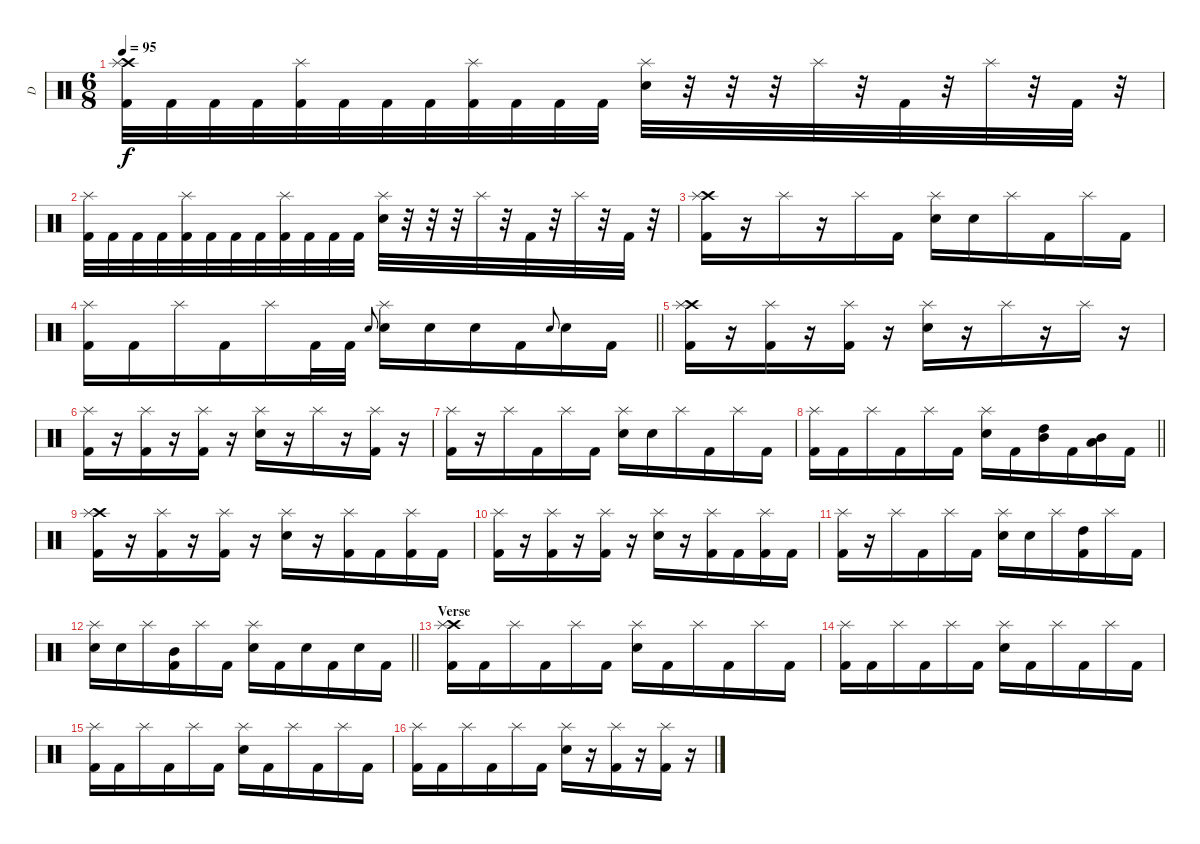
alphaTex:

\track ("D" "D") {instrument percussion}
\staff {score}
\articulation defaults
\ts (6 8)
\tempo 95
\clef neutral
\ks c
("Crash high (hit)" "Kick (hit) 2" "Splash (hit)").32{dy f} "Kick (hit) 2".32 "Kick (hit) 2".32 "Kick (hit) 2".32 ("Kick (hit) 2" "Splash (hit)").32 "Kick (hit) 2".32 "Kick (hit) 2".32 "Kick (hit) 2".32 ("Kick (hit) 2" "Splash (hit)").32 "Kick (hit) 2".32 "Kick (hit) 2".32 "Kick (hit) 2".32 ("Electric Snare (hit)" "Splash (hit)").32 r.32 r.32 r.32 "Splash (hit)".32 r.32 "Kick (hit) 2".32 r.32 "Splash (hit)".32 r.32 "Kick (hit) 2".32 r.32 |
("Kick (hit) 2" "Splash (hit)").32 "Kick (hit) 2".32 "Kick (hit) 2".32 "Kick (hit) 2".32 ("Kick (hit) 2" "Splash (hit)").32 "Kick (hit) 2".32 "Kick (hit) 2".32 "Kick (hit) 2".32 ("Kick (hit) 2" "Splash (hit)").32 "Kick (hit) 2".32 "Kick (hit) 2".32 "Kick (hit) 2".32 ("Electric Snare (hit)" "Splash (hit)").32 r.32 r.32 r.32 "Splash (hit)".32 r.32 "Kick (hit) 2".32 r.32 "Splash (hit)".32 r.32 "Kick (hit) 2".32 r.32 |
("Crash high (hit)" "Kick (hit) 2" "Splash (hit)").16 r.16 "Splash (hit)".16 r.16 "Splash (hit)".16 "Kick (hit) 2".16 ("Electric Snare (hit)" "Splash (hit)").16 "Electric Snare (hit)".16 "Splash (hit)".16 "Kick (hit) 2".16 "Splash (hit)".16 "Kick (hit) 2".16 |
\barLineRight lightlight
("Kick (hit) 2" "Splash (hit)").16 "Kick (hit) 2".16 "Splash (hit)".16 "Kick (hit) 2".16 "Splash (hit)".16 "Kick (hit) 2".32 "Kick (hit) 2".32 "Electric Snare (hit)".8{gr onbeat} ("Electric Snare (hit)" "Splash (hit)").16 "Electric Snare (hit)".16 "Electric Snare (hit)".16 "Kick (hit) 2".16 "Electric Snare (hit)".8{gr onbeat} "Electric Snare (hit)".16 "Kick (hit) 2".16 |
("Crash high (hit)" "Kick (hit) 2" "Splash (hit)").16 r.16 ("Kick (hit) 2" "Splash (hit)").16 r.16 ("Kick (hit) 2" "Splash (hit)").16 r.16 ("Electric Snare (hit)" "Splash (hit)").16 r.16 "Splash (hit)".16 r.16 "Splash (hit)".16 r.16 |
("Kick (hit) 2" "Splash (hit)").16 r.16 ("Kick (hit) 2" "Splash (hit)").16 r.16 ("Kick (hit) 2" "Splash (hit)").16 r.16 ("Electric Snare (hit)" "Splash (hit)").16 r.16 "Splash (hit)".16 r.16 ("Kick (hit) 2" "Splash (hit)").16 r.16 |
("Kick (hit) 2" "Splash (hit)").16 r.16 "Splash (hit)".16 "Kick (hit) 2".16 "Splash (hit)".16 "Kick (hit) 2".16 ("Electric Snare (hit)" "Splash (hit)").16 "Electric Snare (hit)".16 "Splash (hit)".16 "Kick (hit) 2".16 "Splash (hit)".16 "Kick (hit) 2".16 |
\barLineRight lightlight
("Kick (hit) 2" "Splash (hit)").16 "Kick (hit) 2".16 "Splash (hit)".16 "Kick (hit) 2".16 "Splash (hit)".16 "Kick (hit) 2".16 ("Electric Snare (hit)" "Splash (hit)").16 "Kick (hit) 2".16 ("Mid Tom (hit)" "High Tom (hit)").16 "Kick (hit) 2".16 ("Mid Tom (hit)" "Low Tom (hit)").16 "Kick (hit) 2".16 |
("Crash high (hit)" "Kick (hit) 2" "Splash (hit)").16 r.16 ("Kick (hit) 2" "Splash (hit)").16 r.16 ("Kick (hit) 2" "Splash (hit)").16 r.16 ("Electric Snare (hit)" "Splash (hit)").16 r.16 ("Kick (hit) 2" "Splash (hit)").16 "Kick (hit) 2".16 ("Kick (hit) 2" "Splash (hit)").16 "Kick (hit) 2".16 |
("Kick (hit) 2" "Splash (hit)").16 r.16 ("Kick (hit) 2" "Splash (hit)").16 r.16 ("Kick (hit) 2" "Splash (hit)").16 r.16 ("Electric Snare (hit)" "Splash (hit)").16 r.16 ("Kick (hit) 2" "Splash (hit)").16 "Kick (hit) 2".16 ("Kick (hit) 2" "Splash (hit)").16 "Kick (hit) 2".16 |
("Kick (hit) 2" "Splash (hit)").16 r.16 "Splash (hit)".16 "Kick (hit) 2".16 "Splash (hit)".16 "Kick (hit) 2".16 ("Electric Snare (hit)" "Splash (hit)").16 "Electric Snare (hit)".16 "Splash (hit)".16 ("High Tom (hit)" "Kick (hit) 2").16 "Splash (hit)".16 "Kick (hit) 2".16 |
\barLineRight lightlight
("Electric Snare (hit)" "Splash (hit)").16 "Electric Snare (hit)".16 "Splash (hit)".16 ("Mid Tom (hit)" "Kick (hit) 2").16 "Splash (hit)".16 "Kick (hit) 2".16 ("Electric Snare (hit)" "Splash (hit)").16 "Kick (hit) 2".16 "Electric Snare (hit)".16 "Kick (hit) 2".16 "Electric Snare (hit)".16 "Kick (hit) 2".16 |
\section ("" "Verse")
("Crash high (hit)" "Kick (hit) 2" "Splash (hit)").16 "Kick (hit) 2".16 "Splash (hit)".16 "Kick (hit) 2".16 "Splash (hit)".16 "Kick (hit) 2".16 ("Electric Snare (hit)" "Splash (hit)").16 "Kick (hit) 2".16 "Splash (hit)".16 "Kick (hit) 2".16 "Splash (hit)".16 "Kick (hit) 2".16 |
("Kick (hit) 2" "Splash (hit)").16 "Kick (hit) 2".16 "Splash (hit)".16 "Kick (hit) 2".16 "Splash (hit)".16 "Kick (hit) 2".16 ("Electric Snare (hit)" "Splash (hit)").16 "Kick (hit) 2".16 "Splash (hit)".16 "Kick (hit) 2".16 "Splash (hit)".16 "Kick (hit) 2".16 |
("Kick (hit) 2" "Splash (hit)").16 "Kick (hit) 2".16 "Splash (hit)".16 "Kick (hit) 2".16 "Splash (hit)".16 "Kick (hit) 2".16 ("Electric Snare (hit)" "Splash (hit)").16 "Kick (hit) 2".16 "Splash (hit)".16 "Kick (hit) 2".16 "Splash (hit)".16 "Kick (hit) 2".16 |
("Kick (hit) 2" "Splash (hit)").16 "Kick (hit) 2".16 "Splash (hit)".16 "Kick (hit) 2".16 "Splash (hit)".16 "Kick (hit) 2".16 ("Electric Snare (hit)" "Splash (hit)").16 r.16 ("Kick (hit) 2" "Splash (hit)").16 r.16 ("Kick (hit) 2" "Splash (hit)").16 r.16
